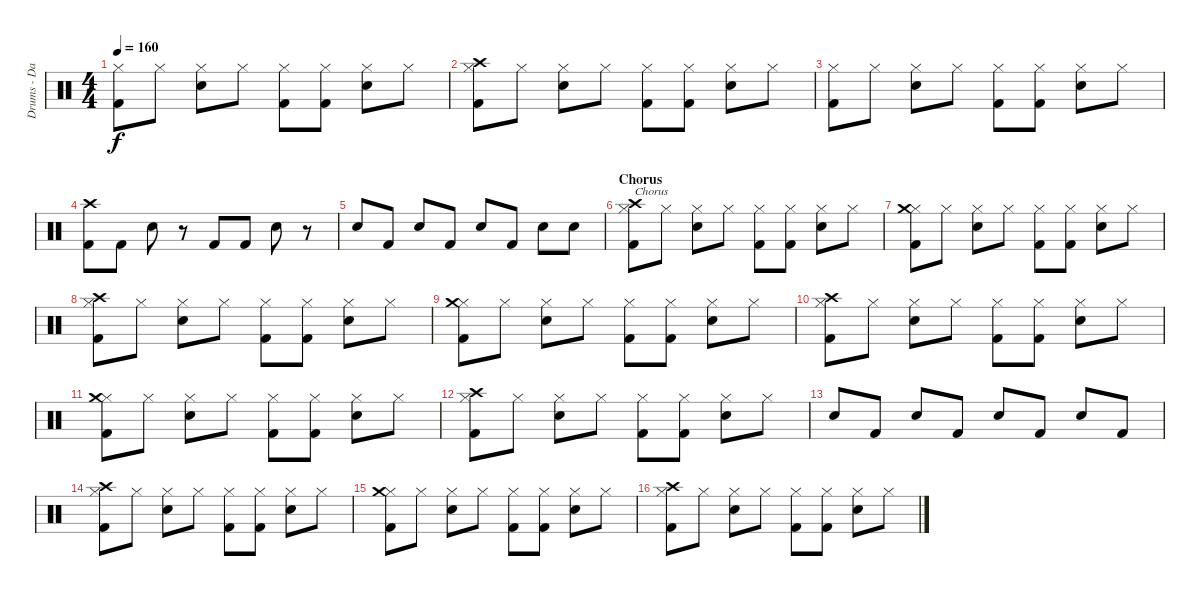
\track ("Drums - Daniel Zimmermann" "Drums - Da") {instrument percussion}
\staff {score}
\articulation defaults
\ts (4 4)
\tempo 160
\clef neutral
\ks c
("Hi-Hat (closed)" "Kick (hit) 2").8{dy f} "Hi-Hat (closed)".8 ("Hi-Hat (closed)" "Snare (hit) 2").8 "Hi-Hat (closed)".8 ("Hi-Hat (closed)" "Kick (hit) 2").8 ("Hi-Hat (closed)" "Kick (hit) 2").8 ("Hi-Hat (closed)" "Snare (hit) 2").8 "Hi-Hat (closed)".8 |
("Hi-Hat (closed)" "Kick (hit) 2" "Crash high (hit)").8 "Hi-Hat (closed)".8 ("Hi-Hat (closed)" "Snare (hit) 2").8 "Hi-Hat (closed)".8 ("Hi-Hat (closed)" "Kick (hit) 2").8 ("Hi-Hat (closed)" "Kick (hit) 2").8 ("Hi-Hat (closed)" "Snare (hit) 2").8 "Hi-Hat (closed)".8 |
("Hi-Hat (closed)" "Kick (hit) 2").8 "Hi-Hat (closed)".8 ("Hi-Hat (closed)" "Snare (hit) 2").8 "Hi-Hat (closed)".8 ("Hi-Hat (closed)" "Kick (hit) 2").8 ("Hi-Hat (closed)" "Kick (hit) 2").8 ("Hi-Hat (closed)" "Snare (hit) 2").8 "Hi-Hat (closed)".8 |
("Kick (hit) 2" "Crash high (hit)").8 "Kick (hit) 2".8 "Snare (hit) 2".8 r.8 "Kick (hit) 2".8 "Kick (hit) 2".8 "Snare (hit) 2".8 r.8 |
"Snare (hit) 2".8 "Kick (hit) 2".8 "Snare (hit) 2".8 "Kick (hit) 2".8 "Snare (hit) 2".8 "Kick (hit) 2".8 "Snare (hit) 2".8 "Snare (hit) 2".8 |
\section ("" "Chorus")
("Hi-Hat (closed)" "Kick (hit) 2" "Crash high (hit)").8{txt "Chorus"} "Hi-Hat (closed)".8 ("Hi-Hat (closed)" "Snare (hit) 2").8 "Hi-Hat (closed)".8 ("Hi-Hat (closed)" "Kick (hit) 2").8 ("Hi-Hat (closed)" "Kick (hit) 2").8 ("Hi-Hat (closed)" "Snare (hit) 2").8 "Hi-Hat (closed)".8 |
("Hi-Hat (closed)" "Kick (hit) 2" "Crash medium (hit)").8 "Hi-Hat (closed)".8 ("Hi-Hat (closed)" "Snare (hit) 2").8 "Hi-Hat (closed)".8 ("Hi-Hat (closed)" "Kick (hit) 2").8 ("Hi-Hat (closed)" "Kick (hit) 2").8 ("Hi-Hat (closed)" "Snare (hit) 2").8 "Hi-Hat (closed)".8 |
("Hi-Hat (closed)" "Kick (hit) 2" "Crash high (hit)").8 "Hi-Hat (closed)".8 ("Hi-Hat (closed)" "Snare (hit) 2").8 "Hi-Hat (closed)".8 ("Hi-Hat (closed)" "Kick (hit) 2").8 ("Hi-Hat (closed)" "Kick (hit) 2").8 ("Hi-Hat (closed)" "Snare (hit) 2").8 "Hi-Hat (closed)".8 |
("Hi-Hat (closed)" "Kick (hit) 2" "Crash medium (hit)").8 "Hi-Hat (closed)".8 ("Hi-Hat (closed)" "Snare (hit) 2").8 "Hi-Hat (closed)".8 ("Hi-Hat (closed)" "Kick (hit) 2").8 ("Hi-Hat (closed)" "Kick (hit) 2").8 ("Hi-Hat (closed)" "Snare (hit) 2").8 "Hi-Hat (closed)".8 |
("Hi-Hat (closed)" "Kick (hit) 2" "Crash high (hit)").8 "Hi-Hat (closed)".8 ("Hi-Hat (closed)" "Snare (hit) 2").8 "Hi-Hat (closed)".8 ("Hi-Hat (closed)" "Kick (hit) 2").8 ("Hi-Hat (closed)" "Kick (hit) 2").8 ("Hi-Hat (closed)" "Snare (hit) 2").8 "Hi-Hat (closed)".8 |
("Hi-Hat (closed)" "Kick (hit) 2" "Crash medium (hit)").8 "Hi-Hat (closed)".8 ("Hi-Hat (closed)" "Snare (hit) 2").8 "Hi-Hat (closed)".8 ("Hi-Hat (closed)" "Kick (hit) 2").8 ("Hi-Hat (closed)" "Kick (hit) 2").8 ("Hi-Hat (closed)" "Snare (hit) 2").8 "Hi-Hat (closed)".8 |
("Hi-Hat (closed)" "Kick (hit) 2" "Crash high (hit)").8 "Hi-Hat (closed)".8 ("Hi-Hat (closed)" "Snare (hit) 2").8 "Hi-Hat (closed)".8 ("Hi-Hat (closed)" "Kick (hit) 2").8 ("Hi-Hat (closed)" "Kick (hit) 2").8 ("Hi-Hat (closed)" "Snare (hit) 2").8 "Hi-Hat (closed)".8 |
"Snare (hit) 2".8 "Kick (hit) 2".8 "Snare (hit) 2".8 "Kick (hit) 2".8 "Snare (hit) 2".8 "Kick (hit) 2".8 "Snare (hit) 2".8 "Kick (hit) 2".8 |
("Hi-Hat (closed)" "Kick (hit) 2" "Crash high (hit)").8 "Hi-Hat (closed)".8 ("Hi-Hat (closed)" "Snare (hit) 2").8 "Hi-Hat (closed)".8 ("Hi-Hat (closed)" "Kick (hit) 2").8 ("Hi-Hat (closed)" "Kick (hit) 2").8 ("Hi-Hat (closed)" "Snare (hit) 2").8 "Hi-Hat (closed)".8 |
("Hi-Hat (closed)" "Kick (hit) 2" "Crash medium (hit)").8 "Hi-Hat (closed)".8 ("Hi-Hat (closed)" "Snare (hit) 2").8 "Hi-Hat (closed)".8 ("Hi-Hat (closed)" "Kick (hit) 2").8 ("Hi-Hat (closed)" "Kick (hit) 2").8 ("Hi-Hat (closed)" "Snare (hit) 2").8 "Hi-Hat (closed)".8 |
("Hi-Hat (closed)" "Kick (hit) 2" "Crash high (hit)").8 "Hi-Hat (closed)".8 ("Hi-Hat (closed)" "Snare (hit) 2").8 "Hi-Hat (closed)".8 ("Hi-Hat (closed)" "Kick (hit) 2").8 ("Hi-Hat (closed)" "Kick (hit) 2").8 ("Hi-Hat (closed)" "Snare (hit) 2").8 "Hi-Hat (closed)".8
